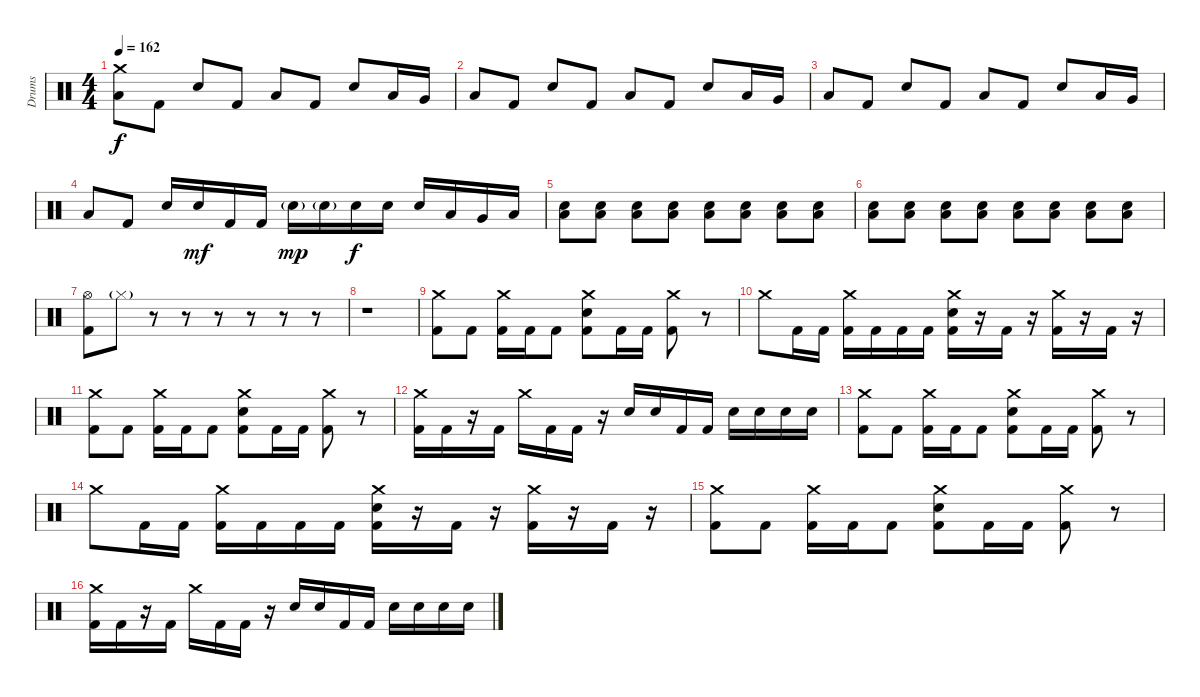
\track ("Drums" "Drums") {instrument percussion}
\staff {score}
\articulation defaults
\ts (4 4)
\tempo 162
\clef neutral
\ks c
("Crash medium (hit)" "Low Floor Tom (hit)").8{dy f} "Kick (hit) 2".8 "Electric Snare (hit)".8 "Kick (hit) 2".8 "Low Floor Tom (hit)".8 "Kick (hit) 2".8 "Electric Snare (hit)".8 "Low Tom (hit)".16 "Very Low Tom (hit)".16 |
"Low Floor Tom (hit)".8 "Kick (hit) 2".8 "Electric Snare (hit)".8 "Kick (hit) 2".8 "Low Floor Tom (hit)".8 "Kick (hit) 2".8 "Electric Snare (hit)".8 "Low Tom (hit)".16 "Very Low Tom (hit)".16 |
"Low Floor Tom (hit)".8 "Kick (hit) 2".8 "Electric Snare (hit)".8 "Kick (hit) 2".8 "Low Floor Tom (hit)".8 "Kick (hit) 2".8 "Electric Snare (hit)".8 "Low Tom (hit)".16 "Very Low Tom (hit)".16 |
"Low Floor Tom (hit)".8 "Kick (hit) 2".8 "Electric Snare (hit)".16 "Electric Snare (hit)".16{dy mf} "Kick (hit) 2".16 "Kick (hit) 2".16 "Snare (hit) 2"{g}.16{dy mp} "Snare (hit) 2"{g}.16 "Electric Snare (hit)".16{dy f} "Electric Snare (hit)".16 "Electric Snare (hit)".16 "Low Tom (hit)".16 "Very Low Tom (hit)".16 "Low Floor Tom (hit)".16 |
("Electric Snare (hit)" "Low Floor Tom (hit)").8 ("Electric Snare (hit)" "Low Floor Tom (hit)").8 ("Electric Snare (hit)" "Low Floor Tom (hit)").8 ("Electric Snare (hit)" "Low Floor Tom (hit)").8 ("Electric Snare (hit)" "Low Floor Tom (hit)").8 ("Electric Snare (hit)" "Low Floor Tom (hit)").8 ("Electric Snare (hit)" "Low Floor Tom (hit)").8 ("Electric Snare (hit)" "Low Floor Tom (hit)").8 |
("Electric Snare (hit)" "Low Floor Tom (hit)").8 ("Electric Snare (hit)" "Low Floor Tom (hit)").8 ("Electric Snare (hit)" "Low Floor Tom (hit)").8 ("Electric Snare (hit)" "Low Floor Tom (hit)").8 ("Electric Snare (hit)" "Low Floor Tom (hit)").8 ("Electric Snare (hit)" "Low Floor Tom (hit)").8 ("Electric Snare (hit)" "Low Floor Tom (hit)").8 ("Electric Snare (hit)" "Low Floor Tom (hit)").8 |
("Hi-Hat (open)" "Kick (hit) 2").8 "Hi-Hat (closed)"{g}.8 r.8 r.8 r.8 r.8 r.8 r.8 |
r.1 |
("Crash medium (hit)" "Kick (hit) 2").8 "Kick (hit) 2".8 ("Crash medium (hit)" "Kick (hit) 2").16 "Kick (hit) 2".16 "Kick (hit) 2".8 ("Crash medium (hit)" "Electric Snare (hit)" "Kick (hit) 2").8 "Kick (hit) 2".16 "Kick (hit) 2".16 ("Crash medium (hit)" "Kick (hit) 2").8 r.8 |
"Crash medium (hit)".8 "Kick (hit) 2".16 "Kick (hit) 2".16 ("Crash medium (hit)" "Kick (hit) 2").16 "Kick (hit) 2".16 "Kick (hit) 2".16 "Kick (hit) 2".16 ("Crash medium (hit)" "Electric Snare (hit)" "Kick (hit) 2").16 r.16 "Kick (hit) 2".16 r.16 ("Crash medium (hit)" "Kick (hit) 2").16 r.16 "Kick (hit) 2".16 r.16 |
("Crash medium (hit)" "Kick (hit) 2").8 "Kick (hit) 2".8 ("Crash medium (hit)" "Kick (hit) 2").16 "Kick (hit) 2".16 "Kick (hit) 2".8 ("Crash medium (hit)" "Electric Snare (hit)" "Kick (hit) 2").8 "Kick (hit) 2".16 "Kick (hit) 2".16 ("Crash medium (hit)" "Kick (hit) 2").8 r.8 |
("Crash medium (hit)" "Kick (hit) 2").16 "Kick (hit) 2".16 r.16 "Kick (hit) 2".16 "Crash medium (hit)".16 "Kick (hit) 2".16 "Kick (hit) 2".16 r.16 "Electric Snare (hit)".16 "Electric Snare (hit)".16 "Kick (hit) 2".16 "Kick (hit) 2".16 "Electric Snare (hit)".16 "Electric Snare (hit)".16 "Electric Snare (hit)".16 "Electric Snare (hit)".16 |
("Crash medium (hit)" "Kick (hit) 2").8 "Kick (hit) 2".8 ("Crash medium (hit)" "Kick (hit) 2").16 "Kick (hit) 2".16 "Kick (hit) 2".8 ("Crash medium (hit)" "Electric Snare (hit)" "Kick (hit) 2").8 "Kick (hit) 2".16 "Kick (hit) 2".16 ("Crash medium (hit)" "Kick (hit) 2").8 r.8 |
"Crash medium (hit)".8 "Kick (hit) 2".16 "Kick (hit) 2".16 ("Crash medium (hit)" "Kick (hit) 2").16 "Kick (hit) 2".16 "Kick (hit) 2".16 "Kick (hit) 2".16 ("Crash medium (hit)" "Electric Snare (hit)" "Kick (hit) 2").16 r.16 "Kick (hit) 2".16 r.16 ("Crash medium (hit)" "Kick (hit) 2").16 r.16 "Kick (hit) 2".16 r.16 |
("Crash medium (hit)" "Kick (hit) 2").8 "Kick (hit) 2".8 ("Crash medium (hit)" "Kick (hit) 2").16 "Kick (hit) 2".16 "Kick (hit) 2".8 ("Crash medium (hit)" "Electric Snare (hit)" "Kick (hit) 2").8 "Kick (hit) 2".16 "Kick (hit) 2".16 ("Crash medium (hit)" "Kick (hit) 2").8 r.8 |
("Crash medium (hit)" "Kick (hit) 2").16 "Kick (hit) 2".16 r.16 "Kick (hit) 2".16 "Crash medium (hit)".16 "Kick (hit) 2".16 "Kick (hit) 2".16 r.16 "Electric Snare (hit)".16 "Electric Snare (hit)".16 "Kick (hit) 2".16 "Kick (hit) 2".16 "Electric Snare (hit)".16 "Electric Snare (hit)".16 "Electric Snare (hit)".16 "Electric Snare (hit)".16
